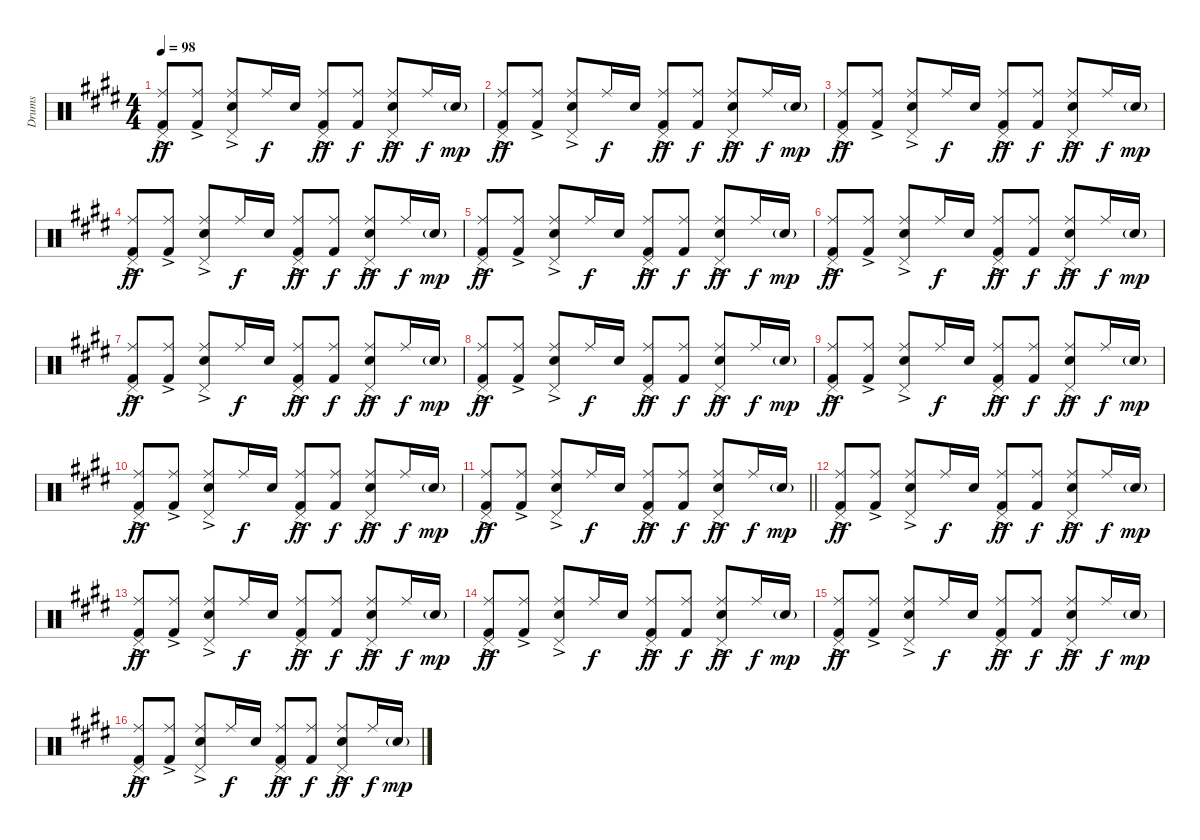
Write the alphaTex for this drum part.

\track ("Drums" "Drums") {instrument percussion}
\staff {score}
\articulation defaults
\ts (4 4)
\tempo 98
\clef neutral
\ks e
("Pedal Hi-Hat (hit)" "Ride (middle)" "Kick (hit) 2"{ac}).8{dy ff} ("Ride (middle)" "Kick (hit) 2"{ac}).8 ("Pedal Hi-Hat (hit)" "Snare (hit) 2"{ac} "Ride (middle)").8 "Ride (middle)".16{dy f} "Snare (hit) 2".16 ("Pedal Hi-Hat (hit)" "Ride (middle)" "Kick (hit) 2"{ac}).8{dy ff} ("Ride (middle)" "Kick (hit) 2").8{dy f} ("Pedal Hi-Hat (hit)" "Snare (hit) 2"{ac} "Ride (middle)").8{dy ff} "Ride (middle)".16{dy f} "Snare (hit) 2"{g}.16{dy mp} |
("Pedal Hi-Hat (hit)" "Ride (middle)" "Kick (hit) 2"{ac}).8{dy ff} ("Ride (middle)" "Kick (hit) 2"{ac}).8 ("Pedal Hi-Hat (hit)" "Snare (hit) 2"{ac} "Ride (middle)").8 "Ride (middle)".16{dy f} "Snare (hit) 2".16 ("Pedal Hi-Hat (hit)" "Ride (middle)" "Kick (hit) 2"{ac}).8{dy ff} ("Ride (middle)" "Kick (hit) 2").8{dy f} ("Pedal Hi-Hat (hit)" "Snare (hit) 2"{ac} "Ride (middle)").8{dy ff} "Ride (middle)".16{dy f} "Snare (hit) 2"{g}.16{dy mp} |
("Pedal Hi-Hat (hit)" "Ride (middle)" "Kick (hit) 2"{ac}).8{dy ff} ("Ride (middle)" "Kick (hit) 2"{ac}).8 ("Pedal Hi-Hat (hit)" "Snare (hit) 2"{ac} "Ride (middle)").8 "Ride (middle)".16{dy f} "Snare (hit) 2".16 ("Pedal Hi-Hat (hit)" "Ride (middle)" "Kick (hit) 2"{ac}).8{dy ff} ("Ride (middle)" "Kick (hit) 2").8{dy f} ("Pedal Hi-Hat (hit)" "Snare (hit) 2"{ac} "Ride (middle)").8{dy ff} "Ride (middle)".16{dy f} "Snare (hit) 2"{g}.16{dy mp} |
("Pedal Hi-Hat (hit)" "Ride (middle)" "Kick (hit) 2"{ac}).8{dy ff} ("Ride (middle)" "Kick (hit) 2"{ac}).8 ("Pedal Hi-Hat (hit)" "Snare (hit) 2"{ac} "Ride (middle)").8 "Ride (middle)".16{dy f} "Snare (hit) 2".16 ("Pedal Hi-Hat (hit)" "Ride (middle)" "Kick (hit) 2"{ac}).8{dy ff} ("Ride (middle)" "Kick (hit) 2").8{dy f} ("Pedal Hi-Hat (hit)" "Snare (hit) 2"{ac} "Ride (middle)").8{dy ff} "Ride (middle)".16{dy f} "Snare (hit) 2"{g}.16{dy mp} |
("Pedal Hi-Hat (hit)" "Ride (middle)" "Kick (hit) 2"{ac}).8{dy ff} ("Ride (middle)" "Kick (hit) 2"{ac}).8 ("Pedal Hi-Hat (hit)" "Snare (hit) 2"{ac} "Ride (middle)").8 "Ride (middle)".16{dy f} "Snare (hit) 2".16 ("Pedal Hi-Hat (hit)" "Ride (middle)" "Kick (hit) 2"{ac}).8{dy ff} ("Ride (middle)" "Kick (hit) 2").8{dy f} ("Pedal Hi-Hat (hit)" "Snare (hit) 2"{ac} "Ride (middle)").8{dy ff} "Ride (middle)".16{dy f} "Snare (hit) 2"{g}.16{dy mp} |
("Pedal Hi-Hat (hit)" "Ride (middle)" "Kick (hit) 2"{ac}).8{dy ff} ("Ride (middle)" "Kick (hit) 2"{ac}).8 ("Pedal Hi-Hat (hit)" "Snare (hit) 2"{ac} "Ride (middle)").8 "Ride (middle)".16{dy f} "Snare (hit) 2".16 ("Pedal Hi-Hat (hit)" "Ride (middle)" "Kick (hit) 2"{ac}).8{dy ff} ("Ride (middle)" "Kick (hit) 2").8{dy f} ("Pedal Hi-Hat (hit)" "Snare (hit) 2"{ac} "Ride (middle)").8{dy ff} "Ride (middle)".16{dy f} "Snare (hit) 2"{g}.16{dy mp} |
("Pedal Hi-Hat (hit)" "Ride (middle)" "Kick (hit) 2"{ac}).8{dy ff} ("Ride (middle)" "Kick (hit) 2"{ac}).8 ("Pedal Hi-Hat (hit)" "Snare (hit) 2"{ac} "Ride (middle)").8 "Ride (middle)".16{dy f} "Snare (hit) 2".16 ("Pedal Hi-Hat (hit)" "Ride (middle)" "Kick (hit) 2"{ac}).8{dy ff} ("Ride (middle)" "Kick (hit) 2").8{dy f} ("Pedal Hi-Hat (hit)" "Snare (hit) 2"{ac} "Ride (middle)").8{dy ff} "Ride (middle)".16{dy f} "Snare (hit) 2"{g}.16{dy mp} |
("Pedal Hi-Hat (hit)" "Ride (middle)" "Kick (hit) 2"{ac}).8{dy ff} ("Ride (middle)" "Kick (hit) 2"{ac}).8 ("Pedal Hi-Hat (hit)" "Snare (hit) 2"{ac} "Ride (middle)").8 "Ride (middle)".16{dy f} "Snare (hit) 2".16 ("Pedal Hi-Hat (hit)" "Ride (middle)" "Kick (hit) 2"{ac}).8{dy ff} ("Ride (middle)" "Kick (hit) 2").8{dy f} ("Pedal Hi-Hat (hit)" "Snare (hit) 2"{ac} "Ride (middle)").8{dy ff} "Ride (middle)".16{dy f} "Snare (hit) 2"{g}.16{dy mp} |
("Pedal Hi-Hat (hit)" "Ride (middle)" "Kick (hit) 2"{ac}).8{dy ff} ("Ride (middle)" "Kick (hit) 2"{ac}).8 ("Pedal Hi-Hat (hit)" "Snare (hit) 2"{ac} "Ride (middle)").8 "Ride (middle)".16{dy f} "Snare (hit) 2".16 ("Pedal Hi-Hat (hit)" "Ride (middle)" "Kick (hit) 2"{ac}).8{dy ff} ("Ride (middle)" "Kick (hit) 2").8{dy f} ("Pedal Hi-Hat (hit)" "Snare (hit) 2"{ac} "Ride (middle)").8{dy ff} "Ride (middle)".16{dy f} "Snare (hit) 2"{g}.16{dy mp} |
("Pedal Hi-Hat (hit)" "Ride (middle)" "Kick (hit) 2"{ac}).8{dy ff} ("Ride (middle)" "Kick (hit) 2"{ac}).8 ("Pedal Hi-Hat (hit)" "Snare (hit) 2"{ac} "Ride (middle)").8 "Ride (middle)".16{dy f} "Snare (hit) 2".16 ("Pedal Hi-Hat (hit)" "Ride (middle)" "Kick (hit) 2"{ac}).8{dy ff} ("Ride (middle)" "Kick (hit) 2").8{dy f} ("Pedal Hi-Hat (hit)" "Snare (hit) 2"{ac} "Ride (middle)").8{dy ff} "Ride (middle)".16{dy f} "Snare (hit) 2"{g}.16{dy mp} |
\barLineRight lightlight
("Pedal Hi-Hat (hit)" "Ride (middle)" "Kick (hit) 2"{ac}).8{dy ff} ("Ride (middle)" "Kick (hit) 2"{ac}).8 ("Pedal Hi-Hat (hit)" "Snare (hit) 2"{ac} "Ride (middle)").8 "Ride (middle)".16{dy f} "Snare (hit) 2".16 ("Pedal Hi-Hat (hit)" "Ride (middle)" "Kick (hit) 2"{ac}).8{dy ff} ("Ride (middle)" "Kick (hit) 2").8{dy f} ("Pedal Hi-Hat (hit)" "Snare (hit) 2"{ac} "Ride (middle)").8{dy ff} "Ride (middle)".16{dy f} "Snare (hit) 2"{g}.16{dy mp} |
("Pedal Hi-Hat (hit)" "Ride (middle)" "Kick (hit) 2"{ac}).8{dy ff} ("Ride (middle)" "Kick (hit) 2"{ac}).8 ("Pedal Hi-Hat (hit)" "Snare (hit) 2"{ac} "Ride (middle)").8 "Ride (middle)".16{dy f} "Snare (hit) 2".16 ("Pedal Hi-Hat (hit)" "Ride (middle)" "Kick (hit) 2"{ac}).8{dy ff} ("Ride (middle)" "Kick (hit) 2").8{dy f} ("Pedal Hi-Hat (hit)" "Snare (hit) 2"{ac} "Ride (middle)").8{dy ff} "Ride (middle)".16{dy f} "Snare (hit) 2"{g}.16{dy mp} |
("Pedal Hi-Hat (hit)" "Ride (middle)" "Kick (hit) 2"{ac}).8{dy ff} ("Ride (middle)" "Kick (hit) 2"{ac}).8 ("Pedal Hi-Hat (hit)" "Snare (hit) 2"{ac} "Ride (middle)").8 "Ride (middle)".16{dy f} "Snare (hit) 2".16 ("Pedal Hi-Hat (hit)" "Ride (middle)" "Kick (hit) 2"{ac}).8{dy ff} ("Ride (middle)" "Kick (hit) 2").8{dy f} ("Pedal Hi-Hat (hit)" "Snare (hit) 2"{ac} "Ride (middle)").8{dy ff} "Ride (middle)".16{dy f} "Snare (hit) 2"{g}.16{dy mp} |
("Pedal Hi-Hat (hit)" "Ride (middle)" "Kick (hit) 2"{ac}).8{dy ff} ("Ride (middle)" "Kick (hit) 2"{ac}).8 ("Pedal Hi-Hat (hit)" "Snare (hit) 2"{ac} "Ride (middle)").8 "Ride (middle)".16{dy f} "Snare (hit) 2".16 ("Pedal Hi-Hat (hit)" "Ride (middle)" "Kick (hit) 2"{ac}).8{dy ff} ("Ride (middle)" "Kick (hit) 2").8{dy f} ("Pedal Hi-Hat (hit)" "Snare (hit) 2"{ac} "Ride (middle)").8{dy ff} "Ride (middle)".16{dy f} "Snare (hit) 2"{g}.16{dy mp} |
("Pedal Hi-Hat (hit)" "Ride (middle)" "Kick (hit) 2"{ac}).8{dy ff} ("Ride (middle)" "Kick (hit) 2"{ac}).8 ("Pedal Hi-Hat (hit)" "Snare (hit) 2"{ac} "Ride (middle)").8 "Ride (middle)".16{dy f} "Snare (hit) 2".16 ("Pedal Hi-Hat (hit)" "Ride (middle)" "Kick (hit) 2"{ac}).8{dy ff} ("Ride (middle)" "Kick (hit) 2").8{dy f} ("Pedal Hi-Hat (hit)" "Snare (hit) 2"{ac} "Ride (middle)").8{dy ff} "Ride (middle)".16{dy f} "Snare (hit) 2"{g}.16{dy mp} |
("Pedal Hi-Hat (hit)" "Ride (middle)" "Kick (hit) 2"{ac}).8{dy ff} ("Ride (middle)" "Kick (hit) 2"{ac}).8 ("Pedal Hi-Hat (hit)" "Snare (hit) 2"{ac} "Ride (middle)").8 "Ride (middle)".16{dy f} "Snare (hit) 2".16 ("Pedal Hi-Hat (hit)" "Ride (middle)" "Kick (hit) 2"{ac}).8{dy ff} ("Ride (middle)" "Kick (hit) 2").8{dy f} ("Pedal Hi-Hat (hit)" "Snare (hit) 2"{ac} "Ride (middle)").8{dy ff} "Ride (middle)".16{dy f} "Snare (hit) 2"{g}.16{dy mp}
